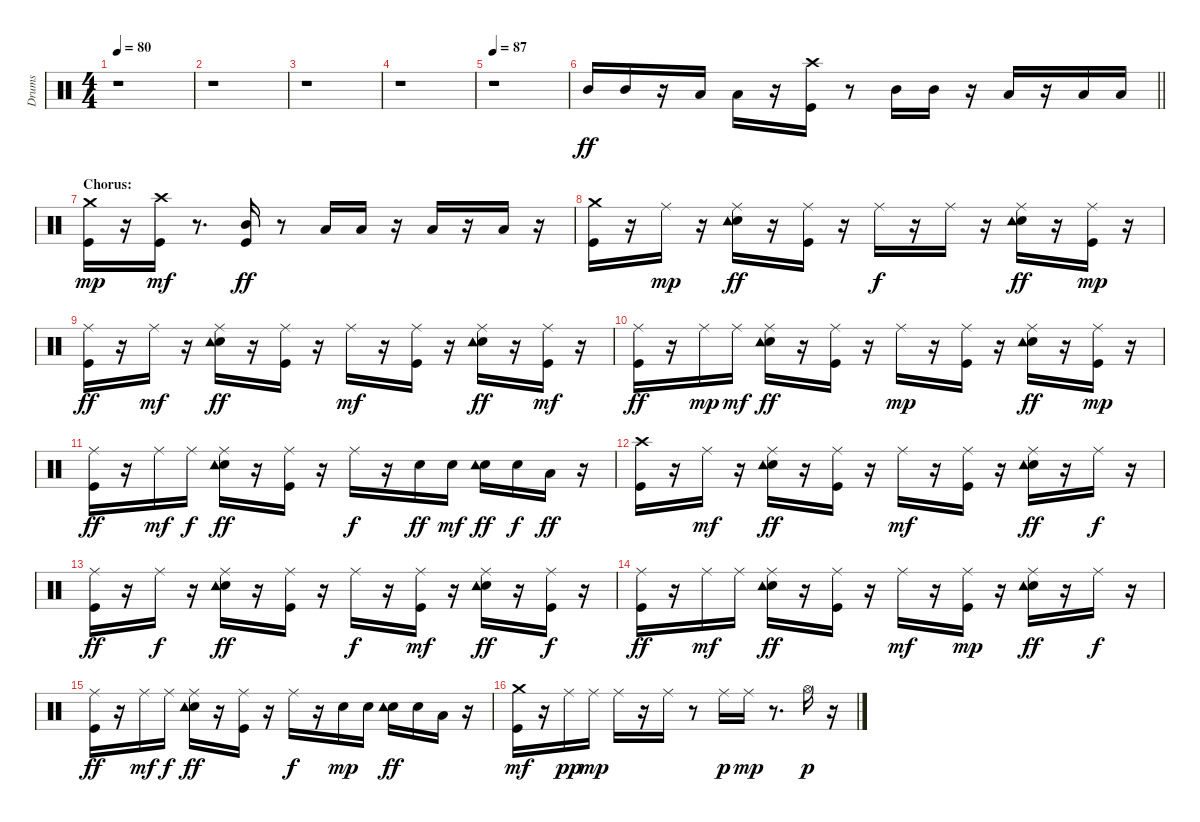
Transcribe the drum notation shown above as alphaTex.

\track ("Drums" "Drums") {instrument percussion}
\staff {score}
\articulation defaults
\ts (4 4)
\tempo 80
\clef neutral
\ks c
r.1{dy ff} |
r.1 |
r.1 |
r.1 |
\tempo 87
r.1 |
\barLineRight lightlight "Mid Tom (hit)".16 "Mid Tom (hit)".16
r.16 "Low Tom (hit)".16 "Low Floor Tom (hit)".16 r.16 ("Kick (hit)" "Crash high (hit)").16 r.8 "Mid Tom (hit)".16 "Mid Tom (hit)".16 r.16 "Low Tom (hit)".16 r.16 "Low Floor Tom (hit)".16 "Low Floor Tom (hit)".16 |
\section ("" "Chorus:")
("Kick (hit)" "Crash medium (hit)").16{dy mp} r.16 ("Kick (hit)" "Crash high (hit)").16{dy mf} r.8{d} ("Kick (hit)" "Mid Tom (hit)").16{dy ff} r.8 "Low Tom (hit)".16 "Low Tom (hit)".16 r.16 "Low Floor Tom (hit)".16 r.16 "Low Floor Tom (hit)".16 r.16 |
("Crash medium (hit)" "Kick (hit)").16 r.16 "Ride (middle)".16{dy mp} r.16 ("Ride (middle)" "Electric Snare (hit)" "Tambourine (hit)").16{dy ff} r.16 ("Ride (middle)" "Kick (hit)").16 r.16 "Ride (middle)".16{dy f} r.16 "Ride (middle)".16 r.16 ("Ride (middle)" "Electric Snare (hit)" "Tambourine (hit)").16{dy ff} r.16 ("Ride (middle)" "Kick (hit)").16{dy mp} r.16 |
("Ride (middle)" "Kick (hit)").16{dy ff} r.16 "Ride (middle)".16{dy mf} r.16 ("Ride (middle)" "Electric Snare (hit)" "Tambourine (hit)").16{dy ff} r.16 ("Ride (middle)" "Kick (hit)").16 r.16 "Ride (middle)".16{dy mf} r.16 ("Ride (middle)" "Kick (hit)").16 r.16 ("Ride (middle)" "Electric Snare (hit)" "Tambourine (hit)").16{dy ff} r.16 ("Ride (middle)" "Kick (hit)").16{dy mf} r.16 |
("Ride (middle)" "Kick (hit)").16{dy ff} r.16 "Ride (middle)".16{dy mp} "Ride (middle)".16{dy mf} ("Ride (middle)" "Electric Snare (hit)" "Tambourine (hit)").16{dy ff} r.16 ("Ride (middle)" "Kick (hit)").16 r.16 "Ride (middle)".16{dy mp} r.16 ("Ride (middle)" "Kick (hit)").16 r.16 ("Ride (middle)" "Electric Snare (hit)" "Tambourine (hit)").16{dy ff} r.16 ("Ride (middle)" "Kick (hit)").16{dy mp} r.16 |
("Ride (middle)" "Kick (hit)").16{dy ff} r.16 "Ride (middle)".16{dy mf} "Ride (middle)".16{dy f} ("Ride (middle)" "Electric Snare (hit)" "Tambourine (hit)").16{dy ff} r.16 ("Ride (middle)" "Kick (hit)").16 r.16 "Ride (middle)".16{dy f} r.16 "Electric Snare (hit)".16{dy ff} "Electric Snare (hit)".16{dy mf} ("Electric Snare (hit)" "Tambourine (hit)").16{dy ff} "Electric Snare (hit)".16{dy f} "Low Floor Tom (hit)".16{dy ff} r.16 |
("Crash high (hit)" "Kick (hit)").16 r.16 "Ride (middle)".16{dy mf} r.16 ("Ride (middle)" "Electric Snare (hit)" "Tambourine (hit)").16{dy ff} r.16 ("Ride (middle)" "Kick (hit)").16 r.16 "Ride (middle)".16{dy mf} r.16 ("Ride (middle)" "Kick (hit)").16 r.16 ("Ride (middle)" "Electric Snare (hit)" "Tambourine (hit)").16{dy ff} r.16 "Ride (middle)".16{dy f} r.16 |
("Ride (middle)" "Kick (hit)").16{dy ff} r.16 "Ride (middle)".16{dy f} r.16 ("Ride (middle)" "Electric Snare (hit)" "Tambourine (hit)").16{dy ff} r.16 ("Ride (middle)" "Kick (hit)").16 r.16 "Ride (middle)".16{dy f} r.16 ("Ride (middle)" "Kick (hit)").16{dy mf} r.16 ("Ride (middle)" "Electric Snare (hit)" "Tambourine (hit)").16{dy ff} r.16 ("Ride (middle)" "Kick (hit)").16{dy f} r.16 |
("Ride (middle)" "Kick (hit)").16{dy ff} r.16 "Ride (middle)".16{dy mf} "Ride (middle)".16 ("Ride (middle)" "Electric Snare (hit)" "Tambourine (hit)").16{dy ff} r.16 ("Ride (middle)" "Kick (hit)").16 r.16 "Ride (middle)".16{dy mf} r.16 ("Ride (middle)" "Kick (hit)").16{dy mp} r.16 ("Ride (middle)" "Electric Snare (hit)" "Tambourine (hit)").16{dy ff} r.16 "Ride (middle)".16{dy f} r.16 |
("Ride (middle)" "Kick (hit)").16{dy ff} r.16 "Ride (middle)".16{dy mf} "Ride (middle)".16{dy f} ("Ride (middle)" "Electric Snare (hit)" "Tambourine (hit)").16{dy ff} r.16 ("Ride (middle)" "Kick (hit)").16 r.16 "Ride (middle)".16{dy f} r.16 "Electric Snare (hit)".16{dy mp} "Electric Snare (hit)".16 ("Electric Snare (hit)" "Tambourine (hit)").16{dy ff} "Electric Snare (hit)".16 "Low Floor Tom (hit)".16 r.16 |
("Crash medium (hit)" "Kick (hit)").16{dy mf} r.16 "Ride (middle)".16{dy pp} "Ride (middle)".16{dy mp} "Ride (middle)".16 r.16 "Ride (middle)".16 r.8 "Ride (middle)".16{dy p} "Ride (middle)".16{dy mp} r.8{d} "Hi-Hat (open)".16{dy p} r.16
